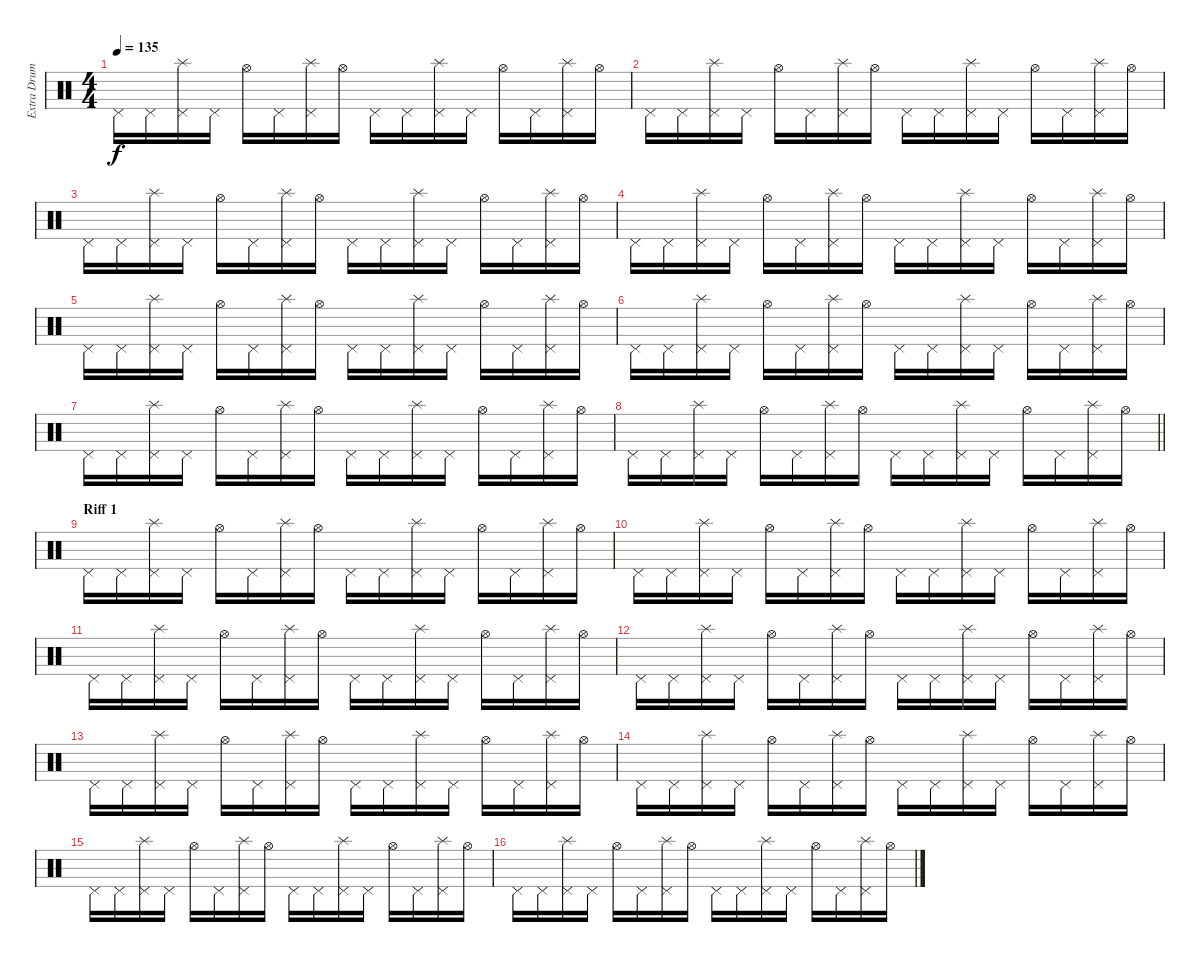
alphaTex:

\track ("Extra Drums" "Extra Drum") {instrument percussion}
\staff {score}
\articulation defaults
\ts (4 4)
\tempo 135
\clef neutral
\ks c "Pedal Hi-Hat (hit)".16{dy f} "Pedal Hi-Hat (hit)".16
("Pedal Hi-Hat (hit)" "Splash (hit)").16 "Pedal Hi-Hat (hit)".16 "Hi-Hat (open)".16 "Pedal Hi-Hat (hit)".16 ("Pedal Hi-Hat (hit)" "Splash (hit)").16 "Hi-Hat (open)".16 "Pedal Hi-Hat (hit)".16 "Pedal Hi-Hat (hit)".16 ("Pedal Hi-Hat (hit)" "Splash (hit)").16 "Pedal Hi-Hat (hit)".16 "Hi-Hat (open)".16 "Pedal Hi-Hat (hit)".16 ("Pedal Hi-Hat (hit)" "Splash (hit)").16 "Hi-Hat (open)".16 |
"Pedal Hi-Hat (hit)".16 "Pedal Hi-Hat (hit)".16 ("Pedal Hi-Hat (hit)" "Splash (hit)").16 "Pedal Hi-Hat (hit)".16 "Hi-Hat (open)".16 "Pedal Hi-Hat (hit)".16 ("Pedal Hi-Hat (hit)" "Splash (hit)").16 "Hi-Hat (open)".16 "Pedal Hi-Hat (hit)".16 "Pedal Hi-Hat (hit)".16 ("Pedal Hi-Hat (hit)" "Splash (hit)").16 "Pedal Hi-Hat (hit)".16 "Hi-Hat (open)".16 "Pedal Hi-Hat (hit)".16 ("Pedal Hi-Hat (hit)" "Splash (hit)").16 "Hi-Hat (open)".16 |
"Pedal Hi-Hat (hit)".16 "Pedal Hi-Hat (hit)".16 ("Pedal Hi-Hat (hit)" "Splash (hit)").16 "Pedal Hi-Hat (hit)".16 "Hi-Hat (open)".16 "Pedal Hi-Hat (hit)".16 ("Pedal Hi-Hat (hit)" "Splash (hit)").16 "Hi-Hat (open)".16 "Pedal Hi-Hat (hit)".16 "Pedal Hi-Hat (hit)".16 ("Pedal Hi-Hat (hit)" "Splash (hit)").16 "Pedal Hi-Hat (hit)".16 "Hi-Hat (open)".16 "Pedal Hi-Hat (hit)".16 ("Pedal Hi-Hat (hit)" "Splash (hit)").16 "Hi-Hat (open)".16 |
"Pedal Hi-Hat (hit)".16 "Pedal Hi-Hat (hit)".16 ("Pedal Hi-Hat (hit)" "Splash (hit)").16 "Pedal Hi-Hat (hit)".16 "Hi-Hat (open)".16 "Pedal Hi-Hat (hit)".16 ("Pedal Hi-Hat (hit)" "Splash (hit)").16 "Hi-Hat (open)".16 "Pedal Hi-Hat (hit)".16 "Pedal Hi-Hat (hit)".16 ("Pedal Hi-Hat (hit)" "Splash (hit)").16 "Pedal Hi-Hat (hit)".16 "Hi-Hat (open)".16 "Pedal Hi-Hat (hit)".16 ("Pedal Hi-Hat (hit)" "Splash (hit)").16 "Hi-Hat (open)".16 |
"Pedal Hi-Hat (hit)".16 "Pedal Hi-Hat (hit)".16 ("Pedal Hi-Hat (hit)" "Splash (hit)").16 "Pedal Hi-Hat (hit)".16 "Hi-Hat (open)".16 "Pedal Hi-Hat (hit)".16 ("Pedal Hi-Hat (hit)" "Splash (hit)").16 "Hi-Hat (open)".16 "Pedal Hi-Hat (hit)".16 "Pedal Hi-Hat (hit)".16 ("Pedal Hi-Hat (hit)" "Splash (hit)").16 "Pedal Hi-Hat (hit)".16 "Hi-Hat (open)".16 "Pedal Hi-Hat (hit)".16 ("Pedal Hi-Hat (hit)" "Splash (hit)").16 "Hi-Hat (open)".16 |
"Pedal Hi-Hat (hit)".16 "Pedal Hi-Hat (hit)".16 ("Pedal Hi-Hat (hit)" "Splash (hit)").16 "Pedal Hi-Hat (hit)".16 "Hi-Hat (open)".16 "Pedal Hi-Hat (hit)".16 ("Pedal Hi-Hat (hit)" "Splash (hit)").16 "Hi-Hat (open)".16 "Pedal Hi-Hat (hit)".16 "Pedal Hi-Hat (hit)".16 ("Pedal Hi-Hat (hit)" "Splash (hit)").16 "Pedal Hi-Hat (hit)".16 "Hi-Hat (open)".16 "Pedal Hi-Hat (hit)".16 ("Pedal Hi-Hat (hit)" "Splash (hit)").16 "Hi-Hat (open)".16 |
"Pedal Hi-Hat (hit)".16 "Pedal Hi-Hat (hit)".16 ("Pedal Hi-Hat (hit)" "Splash (hit)").16 "Pedal Hi-Hat (hit)".16 "Hi-Hat (open)".16 "Pedal Hi-Hat (hit)".16 ("Pedal Hi-Hat (hit)" "Splash (hit)").16 "Hi-Hat (open)".16 "Pedal Hi-Hat (hit)".16 "Pedal Hi-Hat (hit)".16 ("Pedal Hi-Hat (hit)" "Splash (hit)").16 "Pedal Hi-Hat (hit)".16 "Hi-Hat (open)".16 "Pedal Hi-Hat (hit)".16 ("Pedal Hi-Hat (hit)" "Splash (hit)").16 "Hi-Hat (open)".16 |
\barLineRight lightlight "Pedal Hi-Hat (hit)".16 "Pedal Hi-Hat (hit)".16
("Pedal Hi-Hat (hit)" "Splash (hit)").16 "Pedal Hi-Hat (hit)".16 "Hi-Hat (open)".16 "Pedal Hi-Hat (hit)".16 ("Pedal Hi-Hat (hit)" "Splash (hit)").16 "Hi-Hat (open)".16 "Pedal Hi-Hat (hit)".16 "Pedal Hi-Hat (hit)".16 ("Pedal Hi-Hat (hit)" "Splash (hit)").16 "Pedal Hi-Hat (hit)".16 "Hi-Hat (open)".16 "Pedal Hi-Hat (hit)".16 ("Pedal Hi-Hat (hit)" "Splash (hit)").16 "Hi-Hat (open)".16 |
\section ("" "Riff 1")
"Pedal Hi-Hat (hit)".16 "Pedal Hi-Hat (hit)".16 ("Pedal Hi-Hat (hit)" "Splash (hit)").16 "Pedal Hi-Hat (hit)".16 "Hi-Hat (open)".16 "Pedal Hi-Hat (hit)".16 ("Pedal Hi-Hat (hit)" "Splash (hit)").16 "Hi-Hat (open)".16 "Pedal Hi-Hat (hit)".16 "Pedal Hi-Hat (hit)".16 ("Pedal Hi-Hat (hit)" "Splash (hit)").16 "Pedal Hi-Hat (hit)".16 "Hi-Hat (open)".16 "Pedal Hi-Hat (hit)".16 ("Pedal Hi-Hat (hit)" "Splash (hit)").16 "Hi-Hat (open)".16 |
"Pedal Hi-Hat (hit)".16 "Pedal Hi-Hat (hit)".16 ("Pedal Hi-Hat (hit)" "Splash (hit)").16 "Pedal Hi-Hat (hit)".16 "Hi-Hat (open)".16 "Pedal Hi-Hat (hit)".16 ("Pedal Hi-Hat (hit)" "Splash (hit)").16 "Hi-Hat (open)".16 "Pedal Hi-Hat (hit)".16 "Pedal Hi-Hat (hit)".16 ("Pedal Hi-Hat (hit)" "Splash (hit)").16 "Pedal Hi-Hat (hit)".16 "Hi-Hat (open)".16 "Pedal Hi-Hat (hit)".16 ("Pedal Hi-Hat (hit)" "Splash (hit)").16 "Hi-Hat (open)".16 |
"Pedal Hi-Hat (hit)".16 "Pedal Hi-Hat (hit)".16 ("Pedal Hi-Hat (hit)" "Splash (hit)").16 "Pedal Hi-Hat (hit)".16 "Hi-Hat (open)".16 "Pedal Hi-Hat (hit)".16 ("Pedal Hi-Hat (hit)" "Splash (hit)").16 "Hi-Hat (open)".16 "Pedal Hi-Hat (hit)".16 "Pedal Hi-Hat (hit)".16 ("Pedal Hi-Hat (hit)" "Splash (hit)").16 "Pedal Hi-Hat (hit)".16 "Hi-Hat (open)".16 "Pedal Hi-Hat (hit)".16 ("Pedal Hi-Hat (hit)" "Splash (hit)").16 "Hi-Hat (open)".16 |
"Pedal Hi-Hat (hit)".16 "Pedal Hi-Hat (hit)".16 ("Pedal Hi-Hat (hit)" "Splash (hit)").16 "Pedal Hi-Hat (hit)".16 "Hi-Hat (open)".16 "Pedal Hi-Hat (hit)".16 ("Pedal Hi-Hat (hit)" "Splash (hit)").16 "Hi-Hat (open)".16 "Pedal Hi-Hat (hit)".16 "Pedal Hi-Hat (hit)".16 ("Pedal Hi-Hat (hit)" "Splash (hit)").16 "Pedal Hi-Hat (hit)".16 "Hi-Hat (open)".16 "Pedal Hi-Hat (hit)".16 ("Pedal Hi-Hat (hit)" "Splash (hit)").16 "Hi-Hat (open)".16 |
"Pedal Hi-Hat (hit)".16 "Pedal Hi-Hat (hit)".16 ("Pedal Hi-Hat (hit)" "Splash (hit)").16 "Pedal Hi-Hat (hit)".16 "Hi-Hat (open)".16 "Pedal Hi-Hat (hit)".16 ("Pedal Hi-Hat (hit)" "Splash (hit)").16 "Hi-Hat (open)".16 "Pedal Hi-Hat (hit)".16 "Pedal Hi-Hat (hit)".16 ("Pedal Hi-Hat (hit)" "Splash (hit)").16 "Pedal Hi-Hat (hit)".16 "Hi-Hat (open)".16 "Pedal Hi-Hat (hit)".16 ("Pedal Hi-Hat (hit)" "Splash (hit)").16 "Hi-Hat (open)".16 |
"Pedal Hi-Hat (hit)".16 "Pedal Hi-Hat (hit)".16 ("Pedal Hi-Hat (hit)" "Splash (hit)").16 "Pedal Hi-Hat (hit)".16 "Hi-Hat (open)".16 "Pedal Hi-Hat (hit)".16 ("Pedal Hi-Hat (hit)" "Splash (hit)").16 "Hi-Hat (open)".16 "Pedal Hi-Hat (hit)".16 "Pedal Hi-Hat (hit)".16 ("Pedal Hi-Hat (hit)" "Splash (hit)").16 "Pedal Hi-Hat (hit)".16 "Hi-Hat (open)".16 "Pedal Hi-Hat (hit)".16 ("Pedal Hi-Hat (hit)" "Splash (hit)").16 "Hi-Hat (open)".16 |
"Pedal Hi-Hat (hit)".16 "Pedal Hi-Hat (hit)".16 ("Pedal Hi-Hat (hit)" "Splash (hit)").16 "Pedal Hi-Hat (hit)".16 "Hi-Hat (open)".16 "Pedal Hi-Hat (hit)".16 ("Pedal Hi-Hat (hit)" "Splash (hit)").16 "Hi-Hat (open)".16 "Pedal Hi-Hat (hit)".16 "Pedal Hi-Hat (hit)".16 ("Pedal Hi-Hat (hit)" "Splash (hit)").16 "Pedal Hi-Hat (hit)".16 "Hi-Hat (open)".16 "Pedal Hi-Hat (hit)".16 ("Pedal Hi-Hat (hit)" "Splash (hit)").16 "Hi-Hat (open)".16 |
"Pedal Hi-Hat (hit)".16 "Pedal Hi-Hat (hit)".16 ("Pedal Hi-Hat (hit)" "Splash (hit)").16 "Pedal Hi-Hat (hit)".16 "Hi-Hat (open)".16 "Pedal Hi-Hat (hit)".16 ("Pedal Hi-Hat (hit)" "Splash (hit)").16 "Hi-Hat (open)".16 "Pedal Hi-Hat (hit)".16 "Pedal Hi-Hat (hit)".16 ("Pedal Hi-Hat (hit)" "Splash (hit)").16 "Pedal Hi-Hat (hit)".16 "Hi-Hat (open)".16 "Pedal Hi-Hat (hit)".16 ("Pedal Hi-Hat (hit)" "Splash (hit)").16 "Hi-Hat (open)".16
